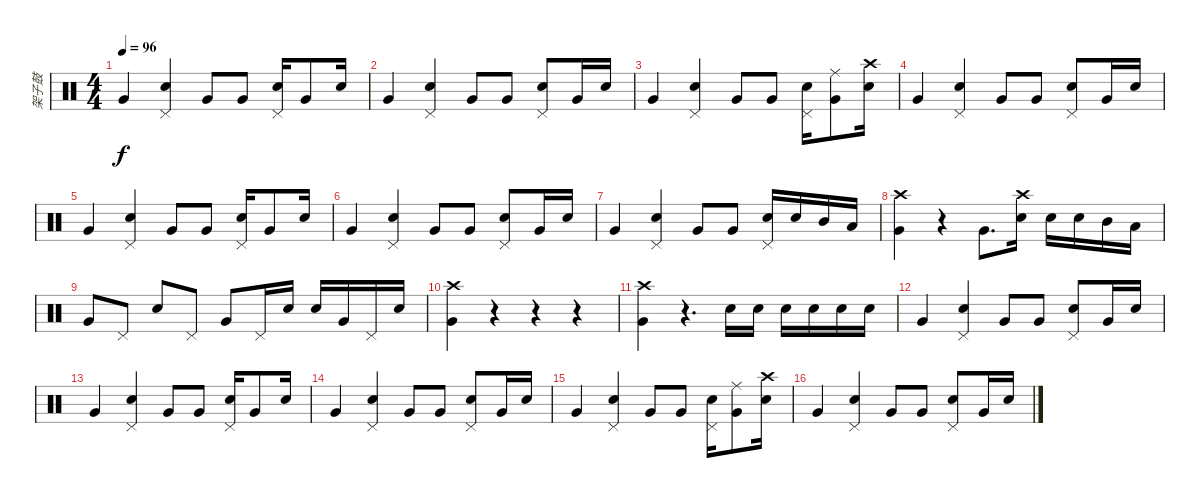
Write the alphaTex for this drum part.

\track ("架子鼓" "架子鼓") {instrument percussion}
\staff {score}
\articulation defaults
\ts (4 4)
\tempo 96
\clef neutral
\ks c "Very Low Tom (hit)".4{dy f}
("Pedal Hi-Hat (hit)" "Snare (hit) 2").4 "Very Low Tom (hit)".8 "Very Low Tom (hit)".8 ("Pedal Hi-Hat (hit)" "Snare (hit) 2").16 "Very Low Tom (hit)".8 "Snare (hit) 2".16 |
"Very Low Tom (hit)".4 ("Pedal Hi-Hat (hit)" "Snare (hit) 2").4 "Very Low Tom (hit)".8 "Very Low Tom (hit)".8 ("Pedal Hi-Hat (hit)" "Snare (hit) 2").8 "Very Low Tom (hit)".16 "Snare (hit) 2".16 |
"Very Low Tom (hit)".4 ("Pedal Hi-Hat (hit)" "Snare (hit) 2").4 "Very Low Tom (hit)".8 "Very Low Tom (hit)".8 ("Pedal Hi-Hat (hit)" "Snare (hit) 2").16 ("Ride (middle)" "Very Low Tom (hit)").8 ("Crash high (hit)" "Snare (hit) 2").16 |
"Very Low Tom (hit)".4 ("Pedal Hi-Hat (hit)" "Snare (hit) 2").4 "Very Low Tom (hit)".8 "Very Low Tom (hit)".8 ("Pedal Hi-Hat (hit)" "Snare (hit) 2").8 "Very Low Tom (hit)".16 "Snare (hit) 2".16 |
"Very Low Tom (hit)".4 ("Pedal Hi-Hat (hit)" "Snare (hit) 2").4 "Very Low Tom (hit)".8 "Very Low Tom (hit)".8 ("Pedal Hi-Hat (hit)" "Snare (hit) 2").16 "Very Low Tom (hit)".8 "Snare (hit) 2".16 |
"Very Low Tom (hit)".4 ("Pedal Hi-Hat (hit)" "Snare (hit) 2").4 "Very Low Tom (hit)".8 "Very Low Tom (hit)".8 ("Pedal Hi-Hat (hit)" "Snare (hit) 2").8 "Very Low Tom (hit)".16 "Snare (hit) 2".16 |
"Very Low Tom (hit)".4 ("Pedal Hi-Hat (hit)" "Snare (hit) 2").4 "Very Low Tom (hit)".8 "Very Low Tom (hit)".8 ("Pedal Hi-Hat (hit)" "Snare (hit) 2").16 "Snare (hit) 2".16 "Mid Tom (hit)".16 "Low Tom (hit)".16 |
("Crash high (hit)" "Very Low Tom (hit)").4 r.4 "Very Low Tom (hit)".8{d} ("Crash high (hit)" "Snare (hit) 2").16 "Snare (hit) 2".16 "Snare (hit) 2".16 "Mid Tom (hit)".16 "Low Tom (hit)".16 |
"Very Low Tom (hit)".8 "Pedal Hi-Hat (hit)".8 "Snare (hit) 2".8 "Pedal Hi-Hat (hit)".8 "Very Low Tom (hit)".8 "Pedal Hi-Hat (hit)".16 "Snare (hit) 2".16 "Snare (hit) 2".16 "Very Low Tom (hit)".16 "Pedal Hi-Hat (hit)".16 "Snare (hit) 2".16 |
("Crash high (hit)" "Very Low Tom (hit)").4 r.4 r.4 r.4 |
("Crash high (hit)" "Very Low Tom (hit)").4 r.4{d} "Snare (hit) 2".16 "Snare (hit) 2".16 "Snare (hit) 2".16 "Snare (hit) 2".16 "Snare (hit) 2".16 "Snare (hit) 2".16 |
"Very Low Tom (hit)".4 ("Pedal Hi-Hat (hit)" "Snare (hit) 2").4 "Very Low Tom (hit)".8 "Very Low Tom (hit)".8 ("Pedal Hi-Hat (hit)" "Snare (hit) 2").8 "Very Low Tom (hit)".16 "Snare (hit) 2".16 |
"Very Low Tom (hit)".4 ("Pedal Hi-Hat (hit)" "Snare (hit) 2").4 "Very Low Tom (hit)".8 "Very Low Tom (hit)".8 ("Pedal Hi-Hat (hit)" "Snare (hit) 2").16 "Very Low Tom (hit)".8 "Snare (hit) 2".16 |
"Very Low Tom (hit)".4 ("Pedal Hi-Hat (hit)" "Snare (hit) 2").4 "Very Low Tom (hit)".8 "Very Low Tom (hit)".8 ("Pedal Hi-Hat (hit)" "Snare (hit) 2").8 "Very Low Tom (hit)".16 "Snare (hit) 2".16 |
"Very Low Tom (hit)".4 ("Pedal Hi-Hat (hit)" "Snare (hit) 2").4 "Very Low Tom (hit)".8 "Very Low Tom (hit)".8 ("Pedal Hi-Hat (hit)" "Snare (hit) 2").16 ("Ride (middle)" "Very Low Tom (hit)").8 ("Crash high (hit)" "Snare (hit) 2").16 |
"Very Low Tom (hit)".4 ("Pedal Hi-Hat (hit)" "Snare (hit) 2").4 "Very Low Tom (hit)".8 "Very Low Tom (hit)".8 ("Pedal Hi-Hat (hit)" "Snare (hit) 2").8 "Very Low Tom (hit)".16 "Snare (hit) 2".16
